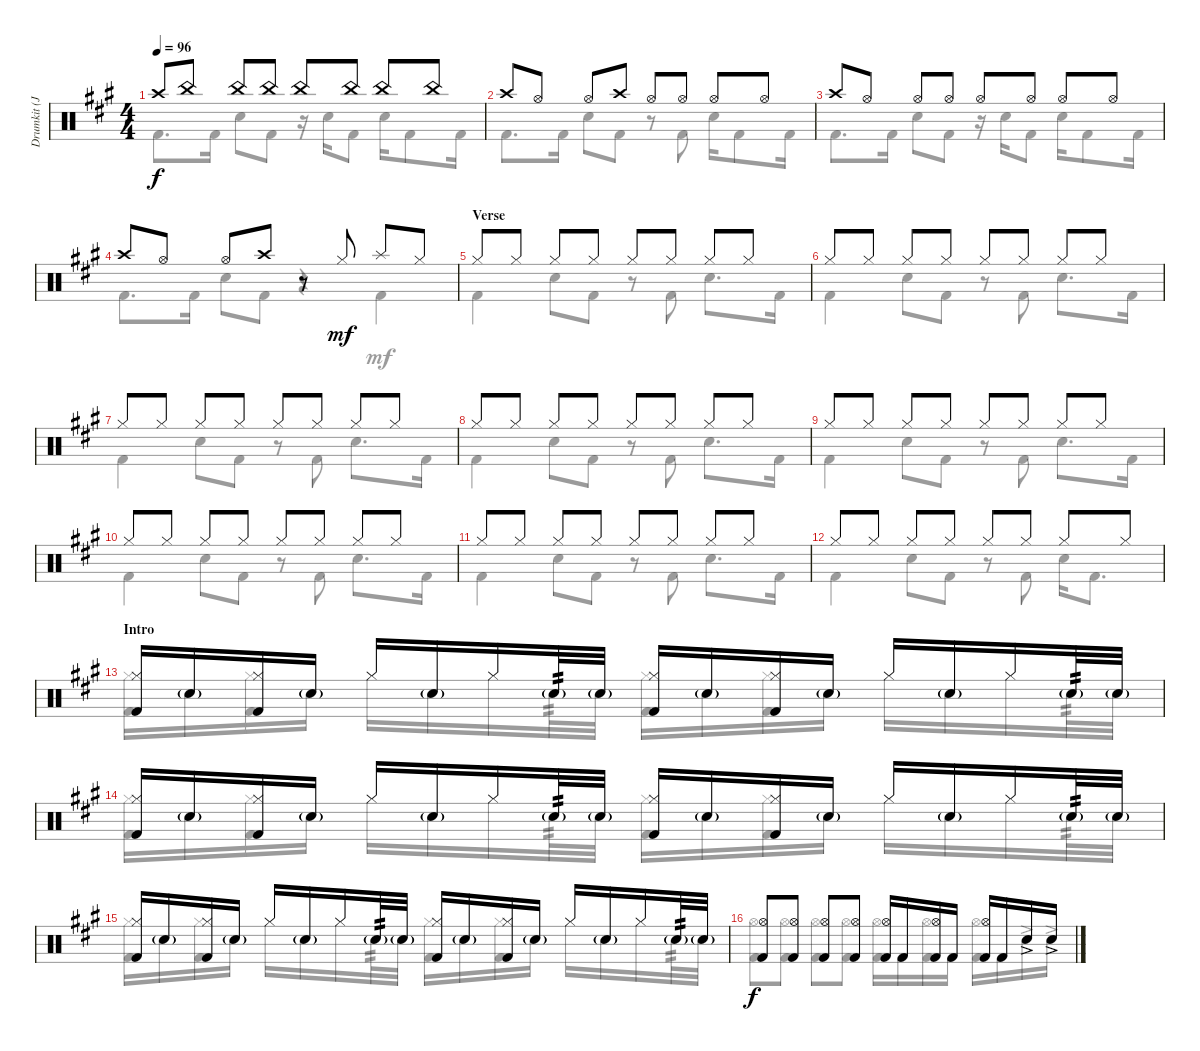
\track ("Drumkit (John Otto)" "Drumkit (J") {instrument percussion}
\staff {score}
\articulation defaults
\voice
\ts (4 4)
\tempo 96
\clef neutral
\ks a "Crash high (hit)".8{dy f} "China (hit)".8 "China (hit)".8 "China (hit)".8 "China (hit)".8 "China (hit)".8 "China (hit)".8 "China (hit)".8
|
"Crash high (hit)".8 "Hi-Hat (open)".8 "Hi-Hat (open)".8 "Crash high (hit)".8 "Hi-Hat (open)".8 "Hi-Hat (open)".8 "Hi-Hat (open)".8 "Hi-Hat (open)".8 |
"Crash high (hit)".8 "Hi-Hat (open)".8 "Hi-Hat (open)".8 "Hi-Hat (open)".8 "Hi-Hat (open)".8 "Hi-Hat (open)".8 "Hi-Hat (open)".8 "Hi-Hat (open)".8 |
"Crash high (hit)".8 "Hi-Hat (open)".8 "Hi-Hat (open)".8 "Crash high (hit)".8 r.8 "Hi-Hat (closed)".8{dy mf} "Splash (hit)".8 "Hi-Hat (closed)".8 |
\section ("" "Verse")
"Hi-Hat (closed)".8 "Hi-Hat (closed)".8 "Hi-Hat (closed)".8 "Hi-Hat (closed)".8 "Hi-Hat (closed)".8 "Hi-Hat (closed)".8 "Hi-Hat (closed)".8 "Hi-Hat (closed)".8 |
"Hi-Hat (closed)".8 "Hi-Hat (closed)".8 "Hi-Hat (closed)".8 "Hi-Hat (closed)".8 "Hi-Hat (closed)".8 "Hi-Hat (closed)".8 "Hi-Hat (closed)".8 "Hi-Hat (closed)".8 |
"Hi-Hat (closed)".8 "Hi-Hat (closed)".8 "Hi-Hat (closed)".8 "Hi-Hat (closed)".8 "Hi-Hat (closed)".8 "Hi-Hat (closed)".8 "Hi-Hat (closed)".8 "Hi-Hat (closed)".8 |
"Hi-Hat (closed)".8 "Hi-Hat (closed)".8 "Hi-Hat (closed)".8 "Hi-Hat (closed)".8 "Hi-Hat (closed)".8 "Hi-Hat (closed)".8 "Hi-Hat (closed)".8 "Hi-Hat (closed)".8 |
"Hi-Hat (closed)".8 "Hi-Hat (closed)".8 "Hi-Hat (closed)".8 "Hi-Hat (closed)".8 "Hi-Hat (closed)".8 "Hi-Hat (closed)".8 "Hi-Hat (closed)".8 "Hi-Hat (closed)".8 |
"Hi-Hat (closed)".8 "Hi-Hat (closed)".8 "Hi-Hat (closed)".8 "Hi-Hat (closed)".8 "Hi-Hat (closed)".8 "Hi-Hat (closed)".8 "Hi-Hat (closed)".8 "Hi-Hat (closed)".8 |
"Hi-Hat (closed)".8 "Hi-Hat (closed)".8 "Hi-Hat (closed)".8 "Hi-Hat (closed)".8 "Hi-Hat (closed)".8 "Hi-Hat (closed)".8 "Hi-Hat (closed)".8 "Hi-Hat (closed)".8 |
"Hi-Hat (closed)".8 "Hi-Hat (closed)".8 "Hi-Hat (closed)".8 "Hi-Hat (closed)".8 "Hi-Hat (closed)".8 "Hi-Hat (closed)".8 "Hi-Hat (closed)".8 "Hi-Hat (closed)".8 |
\section ("" "Intro")
("Kick (hit) 2" "Hi-Hat (closed)").16 "Snare (hit) 2"{g}.16 ("Kick (hit) 2" "Hi-Hat (closed)").16 "Snare (hit) 2"{g}.16 "Hi-Hat (closed)".16 "Snare (hit) 2"{g}.16 "Hi-Hat (closed)".16 "Snare (hit) 2"{g}.32{tp 2} "Snare (hit) 2"{g}.32 ("Kick (hit) 2" "Hi-Hat (closed)").16 "Snare (hit) 2"{g}.16 ("Kick (hit) 2" "Hi-Hat (closed)").16 "Snare (hit) 2"{g}.16 "Hi-Hat (closed)".16 "Snare (hit) 2"{g}.16 "Hi-Hat (closed)".16 "Snare (hit) 2"{g}.32{tp 2} "Snare (hit) 2"{g}.32 |
("Kick (hit) 2" "Hi-Hat (closed)").16 "Snare (hit) 2"{g}.16 ("Kick (hit) 2" "Hi-Hat (closed)").16 "Snare (hit) 2"{g}.16 "Hi-Hat (closed)".16 "Snare (hit) 2"{g}.16 "Hi-Hat (closed)".16 "Snare (hit) 2"{g}.32{tp 2} "Snare (hit) 2"{g}.32 ("Kick (hit) 2" "Hi-Hat (closed)").16 "Snare (hit) 2"{g}.16 ("Kick (hit) 2" "Hi-Hat (closed)").16 "Snare (hit) 2"{g}.16 "Hi-Hat (closed)".16 "Snare (hit) 2"{g}.16 "Hi-Hat (closed)".16 "Snare (hit) 2"{g}.32{tp 2} "Snare (hit) 2"{g}.32 |
("Kick (hit) 2" "Hi-Hat (closed)").16 "Snare (hit) 2"{g}.16 ("Kick (hit) 2" "Hi-Hat (closed)").16 "Snare (hit) 2"{g}.16 "Hi-Hat (closed)".16 "Snare (hit) 2"{g}.16 "Hi-Hat (closed)".16 "Snare (hit) 2"{g}.32{tp 2} "Snare (hit) 2"{g}.32 ("Kick (hit) 2" "Hi-Hat (closed)").16 "Snare (hit) 2"{g}.16 ("Kick (hit) 2" "Hi-Hat (closed)").16 "Snare (hit) 2"{g}.16 "Hi-Hat (closed)".16 "Snare (hit) 2"{g}.16 "Hi-Hat (closed)".16 "Snare (hit) 2"{g}.32{tp 2} "Snare (hit) 2"{g}.32 |
("Hi-Hat (open)" "Kick (hit) 2").8{dy f} ("Hi-Hat (open)" "Kick (hit) 2").8 ("Hi-Hat (open)" "Kick (hit) 2").8 ("Hi-Hat (open)" "Kick (hit) 2").8 ("Hi-Hat (open)" "Kick (hit) 2").16 "Kick (hit) 2".16 ("Hi-Hat (open)" "Kick (hit) 2").16 "Kick (hit) 2".16 ("Hi-Hat (open)" "Kick (hit) 2").16 "Kick (hit) 2".16 "Snare (hit) 2"{ac}.16 "Snare (hit) 2"{ac}.16
\voice
\clef neutral
\ottava regular
\simile none
\ks a "Kick (hit) 2".8{d dy f} "Kick (hit) 2".16 "Snare (hit) 2".8 "Kick (hit) 2".8
r.16 "Snare (hit) 2".16 "Kick (hit) 2".8 "Snare (hit) 2".16 "Kick (hit) 2".8 "Kick (hit) 2".16 |
"Kick (hit) 2".8{d} "Kick (hit) 2".16 "Snare (hit) 2".8 "Kick (hit) 2".8 r.8 "Kick (hit) 2".8 "Snare (hit) 2".16 "Kick (hit) 2".8 "Kick (hit) 2".16 |
"Kick (hit) 2".8{d} "Kick (hit) 2".16 "Snare (hit) 2".8 "Kick (hit) 2".8 r.16 "Snare (hit) 2".16 "Kick (hit) 2".8 "Snare (hit) 2".16 "Kick (hit) 2".8 "Kick (hit) 2".16 |
"Kick (hit) 2".8{d} "Kick (hit) 2".16 "Snare (hit) 2".8 "Kick (hit) 2".8 r.4 "Kick (hit) 2".4{dy mf} |
"Kick (hit) 2".4 "Snare (hit) 2".8 "Kick (hit) 2".8 r.8 "Kick (hit) 2".8 "Snare (hit) 2".8{d} "Kick (hit) 2".16 |
"Kick (hit) 2".4 "Snare (hit) 2".8 "Kick (hit) 2".8 r.8 "Kick (hit) 2".8 "Snare (hit) 2".8{d} "Kick (hit) 2".16 |
"Kick (hit) 2".4 "Snare (hit) 2".8 "Kick (hit) 2".8 r.8 "Kick (hit) 2".8 "Snare (hit) 2".8{d} "Kick (hit) 2".16 |
"Kick (hit) 2".4 "Snare (hit) 2".8 "Kick (hit) 2".8 r.8 "Kick (hit) 2".8 "Snare (hit) 2".8{d} "Kick (hit) 2".16 |
"Kick (hit) 2".4 "Snare (hit) 2".8 "Kick (hit) 2".8 r.8 "Kick (hit) 2".8 "Snare (hit) 2".8{d} "Kick (hit) 2".16 |
"Kick (hit) 2".4 "Snare (hit) 2".8 "Kick (hit) 2".8 r.8 "Kick (hit) 2".8 "Snare (hit) 2".8{d} "Kick (hit) 2".16 |
"Kick (hit) 2".4 "Snare (hit) 2".8 "Kick (hit) 2".8 r.8 "Kick (hit) 2".8 "Snare (hit) 2".8{d} "Kick (hit) 2".16 |
"Kick (hit) 2".4 "Snare (hit) 2".8 "Kick (hit) 2".8 r.8 "Kick (hit) 2".8 "Snare (hit) 2".16 "Kick (hit) 2".8{d} |
("Kick (hit) 2" "Hi-Hat (closed)").16 "Snare (hit) 2"{g}.16 ("Kick (hit) 2" "Hi-Hat (closed)").16 "Snare (hit) 2"{g}.16 "Hi-Hat (closed)".16 "Snare (hit) 2"{g}.16 "Hi-Hat (closed)".16 "Snare (hit) 2"{g}.32{tp 2} "Snare (hit) 2"{g}.32 ("Kick (hit) 2" "Hi-Hat (closed)").16 "Snare (hit) 2"{g}.16 ("Kick (hit) 2" "Hi-Hat (closed)").16 "Snare (hit) 2"{g}.16 "Hi-Hat (closed)".16 "Snare (hit) 2"{g}.16 "Hi-Hat (closed)".16 "Snare (hit) 2"{g}.32{tp 2} "Snare (hit) 2"{g}.32 |
("Kick (hit) 2" "Hi-Hat (closed)").16 "Snare (hit) 2"{g}.16 ("Kick (hit) 2" "Hi-Hat (closed)").16 "Snare (hit) 2"{g}.16 "Hi-Hat (closed)".16 "Snare (hit) 2"{g}.16 "Hi-Hat (closed)".16 "Snare (hit) 2"{g}.32{tp 2} "Snare (hit) 2"{g}.32 ("Kick (hit) 2" "Hi-Hat (closed)").16 "Snare (hit) 2"{g}.16 ("Kick (hit) 2" "Hi-Hat (closed)").16 "Snare (hit) 2"{g}.16 "Hi-Hat (closed)".16 "Snare (hit) 2"{g}.16 "Hi-Hat (closed)".16 "Snare (hit) 2"{g}.32{tp 2} "Snare (hit) 2"{g}.32 |
("Kick (hit) 2" "Hi-Hat (closed)").16 "Snare (hit) 2"{g}.16 ("Kick (hit) 2" "Hi-Hat (closed)").16 "Snare (hit) 2"{g}.16 "Hi-Hat (closed)".16 "Snare (hit) 2"{g}.16 "Hi-Hat (closed)".16 "Snare (hit) 2"{g}.32{tp 2} "Snare (hit) 2"{g}.32 ("Kick (hit) 2" "Hi-Hat (closed)").16 "Snare (hit) 2"{g}.16 ("Kick (hit) 2" "Hi-Hat (closed)").16 "Snare (hit) 2"{g}.16 "Hi-Hat (closed)".16 "Snare (hit) 2"{g}.16 "Hi-Hat (closed)".16 "Snare (hit) 2"{g}.32{tp 2} "Snare (hit) 2"{g}.32 |
("Hi-Hat (open)" "Kick (hit) 2").8{dy f} ("Hi-Hat (open)" "Kick (hit) 2").8 ("Hi-Hat (open)" "Kick (hit) 2").8 ("Hi-Hat (open)" "Kick (hit) 2").8 ("Hi-Hat (open)" "Kick (hit) 2").16 "Kick (hit) 2".16 ("Hi-Hat (open)" "Kick (hit) 2").16 "Kick (hit) 2".16 ("Hi-Hat (open)" "Kick (hit) 2").16 "Kick (hit) 2".16 "Snare (hit) 2"{ac}.16 "Snare (hit) 2"{ac}.16
